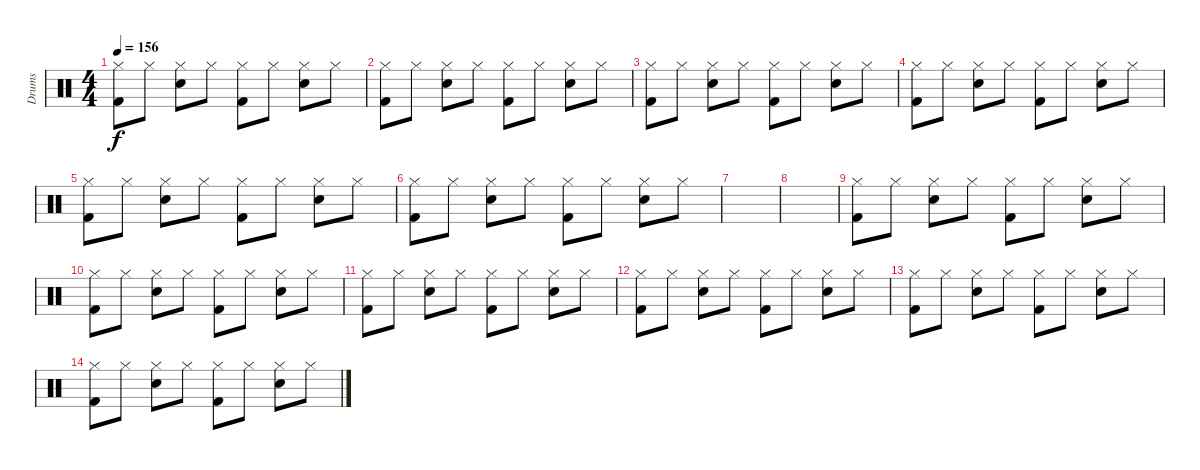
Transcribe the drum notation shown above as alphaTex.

\track ("Drums" "Drums") {instrument percussion}
\staff {score}
\articulation defaults
\ts (4 4)
\tempo 156
\clef neutral
\ks c
("Hi-Hat (closed)" "Kick (hit) 2").8{dy f} "Hi-Hat (closed)".8 ("Hi-Hat (closed)" "Electric Snare (hit)").8 "Hi-Hat (closed)".8 ("Hi-Hat (closed)" "Kick (hit) 2").8 "Hi-Hat (closed)".8 ("Hi-Hat (closed)" "Electric Snare (hit)").8 "Hi-Hat (closed)".8 |
("Hi-Hat (closed)" "Kick (hit) 2").8 "Hi-Hat (closed)".8 ("Hi-Hat (closed)" "Electric Snare (hit)").8 "Hi-Hat (closed)".8 ("Hi-Hat (closed)" "Kick (hit) 2").8 "Hi-Hat (closed)".8 ("Hi-Hat (closed)" "Electric Snare (hit)").8 "Hi-Hat (closed)".8 |
("Hi-Hat (closed)" "Kick (hit) 2").8 "Hi-Hat (closed)".8 ("Hi-Hat (closed)" "Electric Snare (hit)").8 "Hi-Hat (closed)".8 ("Hi-Hat (closed)" "Kick (hit) 2").8 "Hi-Hat (closed)".8 ("Hi-Hat (closed)" "Electric Snare (hit)").8 "Hi-Hat (closed)".8 |
("Hi-Hat (closed)" "Kick (hit) 2").8 "Hi-Hat (closed)".8 ("Hi-Hat (closed)" "Electric Snare (hit)").8 "Hi-Hat (closed)".8 ("Hi-Hat (closed)" "Kick (hit) 2").8 "Hi-Hat (closed)".8 ("Hi-Hat (closed)" "Electric Snare (hit)").8 "Hi-Hat (closed)".8 |
("Hi-Hat (closed)" "Kick (hit) 2").8 "Hi-Hat (closed)".8 ("Hi-Hat (closed)" "Electric Snare (hit)").8 "Hi-Hat (closed)".8 ("Hi-Hat (closed)" "Kick (hit) 2").8 "Hi-Hat (closed)".8 ("Hi-Hat (closed)" "Electric Snare (hit)").8 "Hi-Hat (closed)".8 |
("Hi-Hat (closed)" "Kick (hit) 2").8 "Hi-Hat (closed)".8 ("Hi-Hat (closed)" "Electric Snare (hit)").8 "Hi-Hat (closed)".8 ("Hi-Hat (closed)" "Kick (hit) 2").8 "Hi-Hat (closed)".8 ("Hi-Hat (closed)" "Electric Snare (hit)").8 "Hi-Hat (closed)".8 |
|
|
("Hi-Hat (closed)" "Kick (hit) 2").8 "Hi-Hat (closed)".8 ("Hi-Hat (closed)" "Electric Snare (hit)").8 "Hi-Hat (closed)".8 ("Hi-Hat (closed)" "Kick (hit) 2").8 "Hi-Hat (closed)".8 ("Hi-Hat (closed)" "Electric Snare (hit)").8 "Hi-Hat (closed)".8 |
("Hi-Hat (closed)" "Kick (hit) 2").8 "Hi-Hat (closed)".8 ("Hi-Hat (closed)" "Electric Snare (hit)").8 "Hi-Hat (closed)".8 ("Hi-Hat (closed)" "Kick (hit) 2").8 "Hi-Hat (closed)".8 ("Hi-Hat (closed)" "Electric Snare (hit)").8 "Hi-Hat (closed)".8 |
("Hi-Hat (closed)" "Kick (hit) 2").8 "Hi-Hat (closed)".8 ("Hi-Hat (closed)" "Electric Snare (hit)").8 "Hi-Hat (closed)".8 ("Hi-Hat (closed)" "Kick (hit) 2").8 "Hi-Hat (closed)".8 ("Hi-Hat (closed)" "Electric Snare (hit)").8 "Hi-Hat (closed)".8 |
("Hi-Hat (closed)" "Kick (hit) 2").8 "Hi-Hat (closed)".8 ("Hi-Hat (closed)" "Electric Snare (hit)").8 "Hi-Hat (closed)".8 ("Hi-Hat (closed)" "Kick (hit) 2").8 "Hi-Hat (closed)".8 ("Hi-Hat (closed)" "Electric Snare (hit)").8 "Hi-Hat (closed)".8 |
("Hi-Hat (closed)" "Kick (hit) 2").8 "Hi-Hat (closed)".8 ("Hi-Hat (closed)" "Electric Snare (hit)").8 "Hi-Hat (closed)".8 ("Hi-Hat (closed)" "Kick (hit) 2").8 "Hi-Hat (closed)".8 ("Hi-Hat (closed)" "Electric Snare (hit)").8 "Hi-Hat (closed)".8 |
("Hi-Hat (closed)" "Kick (hit) 2").8 "Hi-Hat (closed)".8 ("Hi-Hat (closed)" "Electric Snare (hit)").8 "Hi-Hat (closed)".8 ("Hi-Hat (closed)" "Kick (hit) 2").8 "Hi-Hat (closed)".8 ("Hi-Hat (closed)" "Electric Snare (hit)").8 "Hi-Hat (closed)".8
